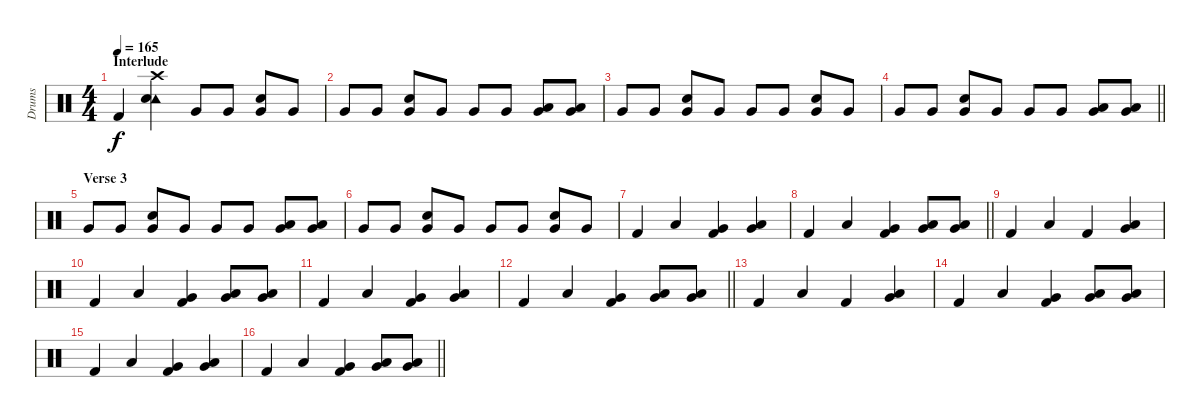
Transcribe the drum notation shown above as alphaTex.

\track ("Drums" "Drums") {instrument percussion}
\staff {score}
\articulation defaults
\ts (4 4)
\section ("" "Interlude")
\tempo 165
\clef neutral
\ks c "Kick (hit) 2".4{dy f}
("Crash high (hit)" "Tambourine (hit)" "Snare (hit) 2").4 "Very Low Tom (hit)".8 "Very Low Tom (hit)".8 ("Snare (hit) 2" "Very Low Tom (hit)").8 "Very Low Tom (hit)".8 |
"Very Low Tom (hit)".8 "Very Low Tom (hit)".8 ("Snare (hit) 2" "Very Low Tom (hit)").8 "Very Low Tom (hit)".8 "Very Low Tom (hit)".8 "Very Low Tom (hit)".8 ("Low Tom (hit)" "Very Low Tom (hit)").8 ("Low Tom (hit)" "Very Low Tom (hit)").8 |
"Very Low Tom (hit)".8 "Very Low Tom (hit)".8 ("Snare (hit) 2" "Very Low Tom (hit)").8 "Very Low Tom (hit)".8 "Very Low Tom (hit)".8 "Very Low Tom (hit)".8 ("Snare (hit) 2" "Very Low Tom (hit)").8 "Very Low Tom (hit)".8 |
\barLineRight lightlight "Very Low Tom (hit)".8 "Very Low Tom (hit)".8
("Snare (hit) 2" "Very Low Tom (hit)").8 "Very Low Tom (hit)".8 "Very Low Tom (hit)".8 "Very Low Tom (hit)".8 ("Low Tom (hit)" "Very Low Tom (hit)").8 ("Low Tom (hit)" "Very Low Tom (hit)").8 |
\section ("" "Verse 3")
"Very Low Tom (hit)".8 "Very Low Tom (hit)".8 ("Snare (hit) 2" "Very Low Tom (hit)").8 "Very Low Tom (hit)".8 "Very Low Tom (hit)".8 "Very Low Tom (hit)".8 ("Low Tom (hit)" "Very Low Tom (hit)").8 ("Low Tom (hit)" "Very Low Tom (hit)").8 |
"Very Low Tom (hit)".8 "Very Low Tom (hit)".8 ("Snare (hit) 2" "Very Low Tom (hit)").8 "Very Low Tom (hit)".8 "Very Low Tom (hit)".8 "Very Low Tom (hit)".8 ("Snare (hit) 2" "Very Low Tom (hit)").8 "Very Low Tom (hit)".8 |
"Kick (hit) 2".4 "Low Tom (hit)".4 ("Very Low Tom (hit)" "Kick (hit) 2").4 ("Low Tom (hit)" "Very Low Tom (hit)").4 |
\barLineRight lightlight "Kick (hit) 2".4 "Low Tom (hit)".4
("Very Low Tom (hit)" "Kick (hit) 2").4 ("Low Tom (hit)" "Very Low Tom (hit)").8 ("Low Tom (hit)" "Very Low Tom (hit)").8 |
"Kick (hit) 2".4 "Low Tom (hit)".4 "Kick (hit) 2".4 ("Low Tom (hit)" "Very Low Tom (hit)").4 |
"Kick (hit) 2".4 "Low Tom (hit)".4 ("Very Low Tom (hit)" "Kick (hit) 2").4 ("Low Tom (hit)" "Very Low Tom (hit)").8 ("Low Tom (hit)" "Very Low Tom (hit)").8 |
"Kick (hit) 2".4 "Low Tom (hit)".4 ("Very Low Tom (hit)" "Kick (hit) 2").4 ("Low Tom (hit)" "Very Low Tom (hit)").4 |
\barLineRight lightlight "Kick (hit) 2".4 "Low Tom (hit)".4
("Very Low Tom (hit)" "Kick (hit) 2").4 ("Low Tom (hit)" "Very Low Tom (hit)").8 ("Low Tom (hit)" "Very Low Tom (hit)").8 |
"Kick (hit) 2".4 "Low Tom (hit)".4 "Kick (hit) 2".4 ("Low Tom (hit)" "Very Low Tom (hit)").4 |
"Kick (hit) 2".4 "Low Tom (hit)".4 ("Very Low Tom (hit)" "Kick (hit) 2").4 ("Low Tom (hit)" "Very Low Tom (hit)").8 ("Low Tom (hit)" "Very Low Tom (hit)").8 |
"Kick (hit) 2".4 "Low Tom (hit)".4 ("Very Low Tom (hit)" "Kick (hit) 2").4 ("Low Tom (hit)" "Very Low Tom (hit)").4 |
\barLineRight lightlight "Kick (hit) 2".4 "Low Tom (hit)".4
("Very Low Tom (hit)" "Kick (hit) 2").4 ("Low Tom (hit)" "Very Low Tom (hit)").8 ("Low Tom (hit)" "Very Low Tom (hit)").8
